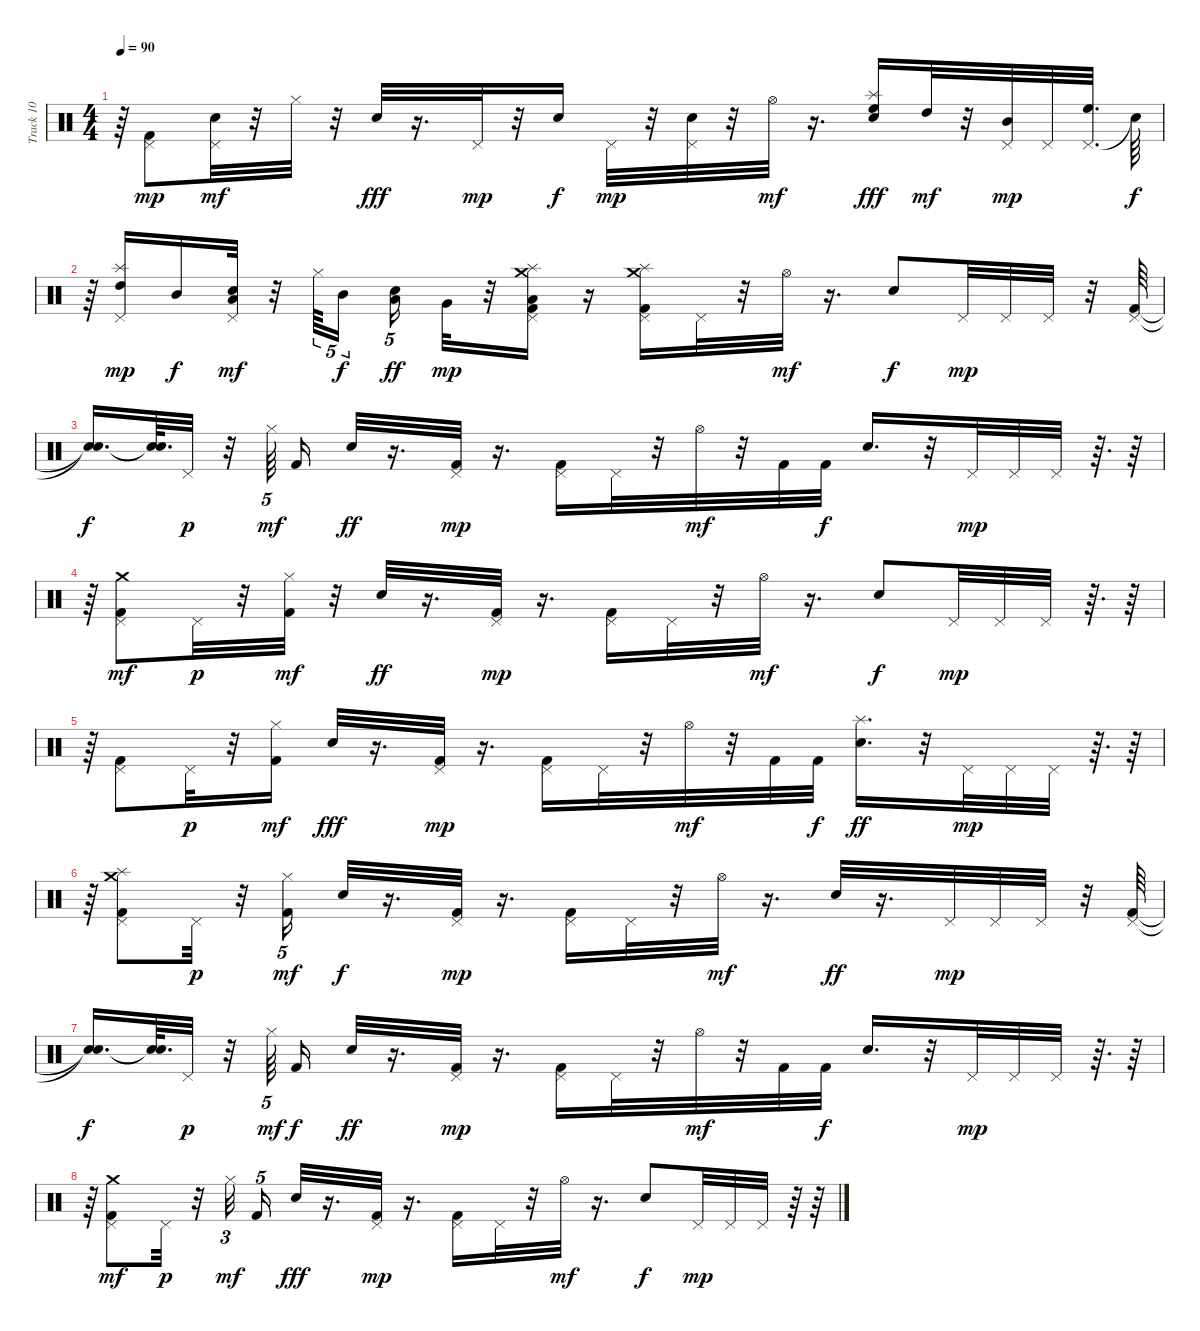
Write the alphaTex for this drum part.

\track ("Track 10" "Track 10") {instrument percussion}
\staff {score}
\articulation defaults
\ts (4 4)
\tempo 90
\clef neutral
\ks c
r.64{dy mp} ("Pedal Hi-Hat (hit)" "Kick (hit) 2").8 ("Pedal Hi-Hat (hit)" "Snare (hit) 2").32{dy mf} r.32 "Hi-Hat (closed)".32 r.32 "Snare (hit) 2".32{dy fff} r.16{d} "Pedal Hi-Hat (hit)".32{dy mp} r.32 "Snare (hit) 2".16{dy f} "Pedal Hi-Hat (hit)".32{dy mp} r.32 ("Pedal Hi-Hat (hit)" "Snare (hit) 2").32 r.32 "Hi-Hat (open)".32{dy mf} r.16{d} ("Splash (hit)" "Snare (hit) 2" "High Floor Tom (hit)").16{dy fff} "High Tom (hit)".32{dy mf} r.32 ("Mid Tom (hit)" "Pedal Hi-Hat (hit)").32{dy mp} "Pedal Hi-Hat (hit)".32 ("Pedal Hi-Hat (hit)" "High Floor Tom (hit)").32{d} "Snare (hit)"{t}.64{dy f} |
r.64 ("High Tom (hit)" "Pedal Hi-Hat (hit)" "Splash (hit)").16{dy mp} "Mid Tom (hit)".16{dy f} ("Pedal Hi-Hat (hit)" "Snare (hit) 2" "Low Tom (hit)").32{dy mf} r.32 "Hi-Hat (closed)".64{tu (5 4)} "Mid Tom (hit)".16{tu (5 4) dy f} ("Snare (hit) 2" "Low Tom (hit)").16{tu (5 4) dy ff} "Very Low Tom (hit)".32{dy mp} r.32 ("Low Floor Tom (hit)" "Pedal Hi-Hat (hit)" "Splash (hit)" "Crash medium (hit)" "Kick (hit) 2").16 r.16 ("Splash (hit)" "Crash medium (hit)" "Pedal Hi-Hat (hit)" "Kick (hit) 2").16 "Pedal Hi-Hat (hit)".32 r.32 "Hi-Hat (open)".32{dy mf} r.16{d} "Snare (hit) 2".8{dy f} "Pedal Hi-Hat (hit)".32{dy mp} "Pedal Hi-Hat (hit)".32 "Pedal Hi-Hat (hit)".32 r.32 ("Pedal Hi-Hat (hit)" "Kick (hit) 2").64 |
("Snare (hit)"{t} "Snare (hit)"{t}).16{d dy f} ("Snare (hit)"{t} "Snare (hit)"{t}).64{d} "Pedal Hi-Hat (hit)".32{dy p} r.32 "Hi-Hat (closed)".64{tu (5 4) dy mf} "Kick (hit) 2".16 "Snare (hit) 2".32{dy ff} r.16{d} ("Pedal Hi-Hat (hit)" "Kick (hit) 2").32{dy mp} r.16{d} ("Pedal Hi-Hat (hit)" "Kick (hit) 2").16 "Pedal Hi-Hat (hit)".32 r.32 "Hi-Hat (open)".32{dy mf} r.32 "Kick (hit) 2".32 "Kick (hit) 2".32{dy f} "Snare (hit) 2".16{d} r.32 "Pedal Hi-Hat (hit)".32{dy mp} "Pedal Hi-Hat (hit)".32 "Pedal Hi-Hat (hit)".32 r.64{d} r.64 |
r.64 ("Pedal Hi-Hat (hit)" "Crash medium (hit)" "Kick (hit) 2").8{dy mf} "Pedal Hi-Hat (hit)".32{dy p} r.32 ("Hi-Hat (closed)" "Kick (hit) 2").32{dy mf} r.32 "Snare (hit) 2".32{dy ff} r.16{d} ("Pedal Hi-Hat (hit)" "Kick (hit) 2").32{dy mp} r.16{d} ("Pedal Hi-Hat (hit)" "Kick (hit) 2").16 "Pedal Hi-Hat (hit)".32 r.32 "Hi-Hat (open)".32{dy mf} r.16{d} "Snare (hit) 2".8{dy f} "Pedal Hi-Hat (hit)".32{dy mp} "Pedal Hi-Hat (hit)".32 "Pedal Hi-Hat (hit)".32 r.64{d} r.64 |
r.64 ("Pedal Hi-Hat (hit)" "Kick (hit) 2").8 "Pedal Hi-Hat (hit)".32{dy p} r.32 ("Hi-Hat (closed)" "Kick (hit) 2").16{dy mf} "Snare (hit) 2".32{dy fff} r.16{d} ("Pedal Hi-Hat (hit)" "Kick (hit) 2").32{dy mp} r.16{d} ("Pedal Hi-Hat (hit)" "Kick (hit) 2").16 "Pedal Hi-Hat (hit)".32 r.32 "Hi-Hat (open)".32{dy mf} r.32 "Kick (hit) 2".32 "Kick (hit) 2".32{dy f} ("Splash (hit)" "Snare (hit) 2").16{d dy ff} r.32 "Pedal Hi-Hat (hit)".32{dy mp} "Pedal Hi-Hat (hit)".32 "Pedal Hi-Hat (hit)".32 r.64{d} r.64 |
r.64 ("Pedal Hi-Hat (hit)" "Crash medium (hit)" "Splash (hit)" "Kick (hit) 2").8 "Pedal Hi-Hat (hit)".32{dy p} r.32 ("Hi-Hat (closed)" "Kick (hit) 2").16{tu (5 4) dy mf} "Snare (hit) 2".32{dy f} r.16{d} ("Pedal Hi-Hat (hit)" "Kick (hit) 2").32{dy mp} r.16{d} ("Pedal Hi-Hat (hit)" "Kick (hit) 2").16 "Pedal Hi-Hat (hit)".32 r.32 "Hi-Hat (open)".32{dy mf} r.16{d} "Snare (hit) 2".32{dy ff} r.16{d} "Pedal Hi-Hat (hit)".32{dy mp} "Pedal Hi-Hat (hit)".32 "Pedal Hi-Hat (hit)".32 r.32 ("Pedal Hi-Hat (hit)" "Kick (hit) 2").64 |
("Snare (hit)"{t} "Snare (hit)"{t}).16{d dy f} ("Snare (hit)"{t} "Snare (hit)"{t}).64{d} "Pedal Hi-Hat (hit)".32{dy p} r.32 "Hi-Hat (closed)".64{tu (5 4) dy mf} "Kick (hit) 2".16{dy f} "Snare (hit) 2".32{dy ff} r.16{d} ("Pedal Hi-Hat (hit)" "Kick (hit) 2").32{dy mp} r.16{d} ("Pedal Hi-Hat (hit)" "Kick (hit) 2").16 "Pedal Hi-Hat (hit)".32 r.32 "Hi-Hat (open)".32{dy mf} r.32 "Kick (hit) 2".32 "Kick (hit) 2".32{dy f} "Snare (hit) 2".16{d} r.32 "Pedal Hi-Hat (hit)".32{dy mp} "Pedal Hi-Hat (hit)".32 "Pedal Hi-Hat (hit)".32 r.64{d} r.64 |
r.64 ("Pedal Hi-Hat (hit)" "Crash medium (hit)" "Kick (hit) 2").8{dy mf} "Pedal Hi-Hat (hit)".32{dy p} r.32 "Hi-Hat (closed)".32{tu (3 2) dy mf} "Kick (hit) 2".16{tu (5 4)} "Snare (hit) 2".32{dy fff} r.16{d} ("Pedal Hi-Hat (hit)" "Kick (hit) 2").32{dy mp} r.16{d} ("Pedal Hi-Hat (hit)" "Kick (hit) 2").16 "Pedal Hi-Hat (hit)".32 r.32 "Hi-Hat (open)".32{dy mf} r.16{d} "Snare (hit) 2".8{dy f} "Pedal Hi-Hat (hit)".32{dy mp} "Pedal Hi-Hat (hit)".32 "Pedal Hi-Hat (hit)".32 r.64 r.64
